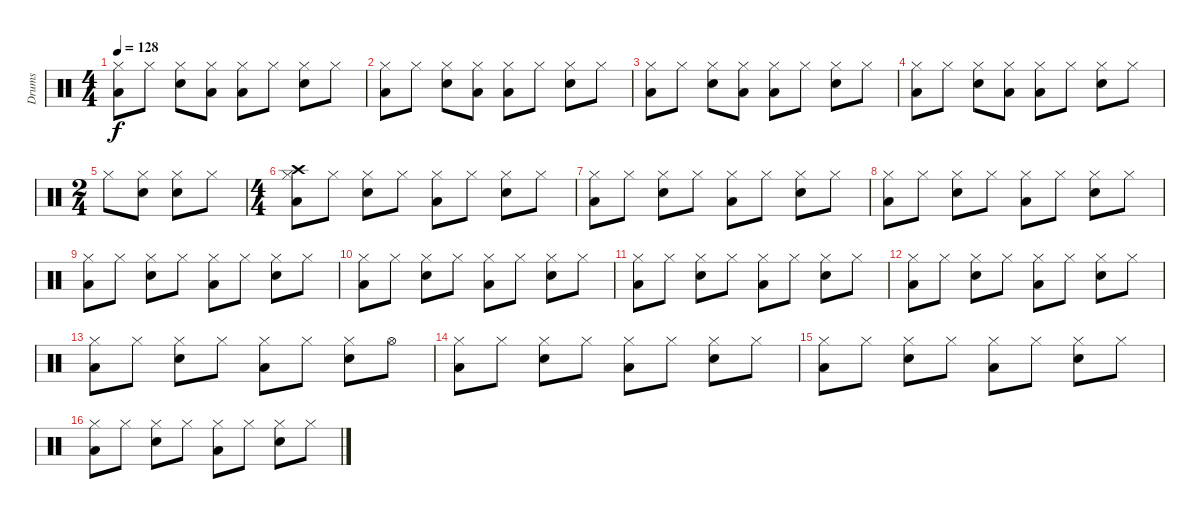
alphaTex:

\track ("Drums" "Drums") {instrument percussion}
\staff {score}
\articulation defaults
\ts (4 4)
\tempo 128
\clef neutral
\ks c
("Hi-Hat (closed)" "Low Tom (hit)").8{dy f} "Hi-Hat (closed)".8 ("Hi-Hat (closed)" "Snare (hit) 2").8 ("Hi-Hat (closed)" "Low Tom (hit)").8 ("Hi-Hat (closed)" "Low Tom (hit)").8 "Hi-Hat (closed)".8 ("Hi-Hat (closed)" "Snare (hit) 2").8 "Hi-Hat (closed)".8 |
("Hi-Hat (closed)" "Low Tom (hit)").8 "Hi-Hat (closed)".8 ("Hi-Hat (closed)" "Snare (hit) 2").8 ("Hi-Hat (closed)" "Low Tom (hit)").8 ("Hi-Hat (closed)" "Low Tom (hit)").8 "Hi-Hat (closed)".8 ("Hi-Hat (closed)" "Snare (hit) 2").8 "Hi-Hat (closed)".8 |
("Hi-Hat (closed)" "Low Tom (hit)").8 "Hi-Hat (closed)".8 ("Hi-Hat (closed)" "Snare (hit) 2").8 ("Hi-Hat (closed)" "Low Tom (hit)").8 ("Hi-Hat (closed)" "Low Tom (hit)").8 "Hi-Hat (closed)".8 ("Hi-Hat (closed)" "Snare (hit) 2").8 "Hi-Hat (closed)".8 |
("Hi-Hat (closed)" "Low Tom (hit)").8 "Hi-Hat (closed)".8 ("Hi-Hat (closed)" "Snare (hit) 2").8 ("Hi-Hat (closed)" "Low Tom (hit)").8 ("Hi-Hat (closed)" "Low Tom (hit)").8 "Hi-Hat (closed)".8 ("Hi-Hat (closed)" "Snare (hit) 2").8 "Hi-Hat (closed)".8 |
\ts (2 4)
"Hi-Hat (closed)".8 ("Hi-Hat (closed)" "Snare (hit) 2").8 ("Hi-Hat (closed)" "Snare (hit) 2").8 "Hi-Hat (closed)".8 |
\ts (4 4)
("Hi-Hat (closed)" "Low Tom (hit)" "Crash high (hit)").8 "Hi-Hat (closed)".8 ("Hi-Hat (closed)" "Snare (hit) 2").8 "Hi-Hat (closed)".8 ("Hi-Hat (closed)" "Low Tom (hit)").8 "Hi-Hat (closed)".8 ("Hi-Hat (closed)" "Snare (hit) 2").8 "Hi-Hat (closed)".8 |
("Hi-Hat (closed)" "Low Tom (hit)").8 "Hi-Hat (closed)".8 ("Hi-Hat (closed)" "Snare (hit) 2").8 "Hi-Hat (closed)".8 ("Hi-Hat (closed)" "Low Tom (hit)").8 "Hi-Hat (closed)".8 ("Hi-Hat (closed)" "Snare (hit) 2").8 "Hi-Hat (closed)".8 |
("Hi-Hat (closed)" "Low Tom (hit)").8 "Hi-Hat (closed)".8 ("Hi-Hat (closed)" "Snare (hit) 2").8 "Hi-Hat (closed)".8 ("Hi-Hat (closed)" "Low Tom (hit)").8 "Hi-Hat (closed)".8 ("Hi-Hat (closed)" "Snare (hit) 2").8 "Hi-Hat (closed)".8 |
("Hi-Hat (closed)" "Low Tom (hit)").8 "Hi-Hat (closed)".8 ("Hi-Hat (closed)" "Snare (hit) 2").8 "Hi-Hat (closed)".8 ("Hi-Hat (closed)" "Low Tom (hit)").8 "Hi-Hat (closed)".8 ("Hi-Hat (closed)" "Snare (hit) 2").8 "Hi-Hat (closed)".8 |
("Hi-Hat (closed)" "Low Tom (hit)").8 "Hi-Hat (closed)".8 ("Hi-Hat (closed)" "Snare (hit) 2").8 "Hi-Hat (closed)".8 ("Hi-Hat (closed)" "Low Tom (hit)").8 "Hi-Hat (closed)".8 ("Hi-Hat (closed)" "Snare (hit) 2").8 "Hi-Hat (closed)".8 |
("Hi-Hat (closed)" "Low Tom (hit)").8 "Hi-Hat (closed)".8 ("Hi-Hat (closed)" "Snare (hit) 2").8 "Hi-Hat (closed)".8 ("Hi-Hat (closed)" "Low Tom (hit)").8 "Hi-Hat (closed)".8 ("Hi-Hat (closed)" "Snare (hit) 2").8 "Hi-Hat (closed)".8 |
("Hi-Hat (closed)" "Low Tom (hit)").8 "Hi-Hat (closed)".8 ("Hi-Hat (closed)" "Snare (hit) 2").8 "Hi-Hat (closed)".8 ("Hi-Hat (closed)" "Low Tom (hit)").8 "Hi-Hat (closed)".8 ("Hi-Hat (closed)" "Snare (hit) 2").8 "Hi-Hat (closed)".8 |
("Hi-Hat (closed)" "Low Tom (hit)").8 "Hi-Hat (closed)".8 ("Hi-Hat (closed)" "Snare (hit) 2").8 "Hi-Hat (closed)".8 ("Hi-Hat (closed)" "Low Tom (hit)").8 "Hi-Hat (closed)".8 ("Hi-Hat (closed)" "Snare (hit) 2").8 "Hi-Hat (open)".8 |
("Hi-Hat (closed)" "Low Tom (hit)").8 "Hi-Hat (closed)".8 ("Hi-Hat (closed)" "Snare (hit) 2").8 "Hi-Hat (closed)".8 ("Hi-Hat (closed)" "Low Tom (hit)").8 "Hi-Hat (closed)".8 ("Hi-Hat (closed)" "Snare (hit) 2").8 "Hi-Hat (closed)".8 |
("Hi-Hat (closed)" "Low Tom (hit)").8 "Hi-Hat (closed)".8 ("Hi-Hat (closed)" "Snare (hit) 2").8 "Hi-Hat (closed)".8 ("Hi-Hat (closed)" "Low Tom (hit)").8 "Hi-Hat (closed)".8 ("Hi-Hat (closed)" "Snare (hit) 2").8 "Hi-Hat (closed)".8 |
("Hi-Hat (closed)" "Low Tom (hit)").8 "Hi-Hat (closed)".8 ("Hi-Hat (closed)" "Snare (hit) 2").8 "Hi-Hat (closed)".8 ("Hi-Hat (closed)" "Low Tom (hit)").8 "Hi-Hat (closed)".8 ("Hi-Hat (closed)" "Snare (hit) 2").8 "Hi-Hat (closed)".8
